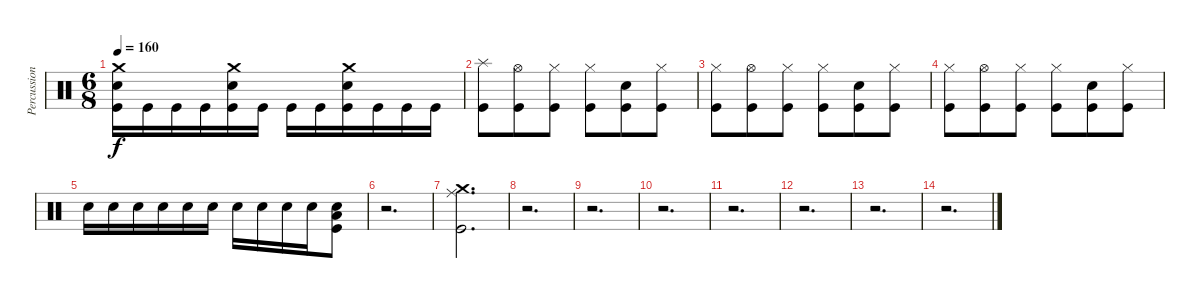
\track ("Percussion" "Percussion") {instrument percussion}
\staff {score}
\articulation defaults
\ts (6 8)
\tempo 160
\clef neutral
\ks c
("Crash medium (hit)" "Snare (hit) 2" "Kick (hit)").16{dy f} "Kick (hit)".16 "Kick (hit)".16 "Kick (hit)".16 ("Crash medium (hit)" "Snare (hit) 2" "Kick (hit)").16 "Kick (hit)".16 "Kick (hit)".16 "Kick (hit)".16 ("Crash medium (hit)" "Snare (hit) 2" "Kick (hit)").16 "Kick (hit)".16 "Kick (hit)".16 "Kick (hit)".16 |
("Splash (hit)" "Kick (hit)").8 ("Hi-Hat (open)" "Kick (hit)").8 ("Hi-Hat (closed)" "Kick (hit)").8 ("Hi-Hat (closed)" "Kick (hit)").8 ("Snare (hit) 2" "Kick (hit)").8 ("Hi-Hat (closed)" "Kick (hit)").8 |
("Hi-Hat (closed)" "Kick (hit)").8 ("Hi-Hat (open)" "Kick (hit)").8 ("Hi-Hat (closed)" "Kick (hit)").8 ("Hi-Hat (closed)" "Kick (hit)").8 ("Snare (hit) 2" "Kick (hit)").8 ("Hi-Hat (closed)" "Kick (hit)").8 |
("Hi-Hat (closed)" "Kick (hit)").8 ("Hi-Hat (open)" "Kick (hit)").8 ("Hi-Hat (closed)" "Kick (hit)").8 ("Hi-Hat (closed)" "Kick (hit)").8 ("Snare (hit) 2" "Kick (hit)").8 ("Hi-Hat (closed)" "Kick (hit)").8 |
"Snare (hit) 2".16 "Snare (hit) 2".16 "Snare (hit) 2".16 "Snare (hit) 2".16 "Snare (hit) 2".16 "Snare (hit) 2".16 "Snare (hit) 2".16 "Snare (hit) 2".16 "Snare (hit) 2".16 "Snare (hit) 2".16 ("Snare (hit) 2" "Low Floor Tom (hit)" "Kick (hit)").8 |
r.2{d volume 0} |
("Crash medium (hit)" "Ride (middle)" "Kick (hit)").2{d volume 14} |
r.2{d} |
r.2{d} |
r.2{d} |
r.2{d} |
r.2{d} |
r.2{d} |
r.2{d}
